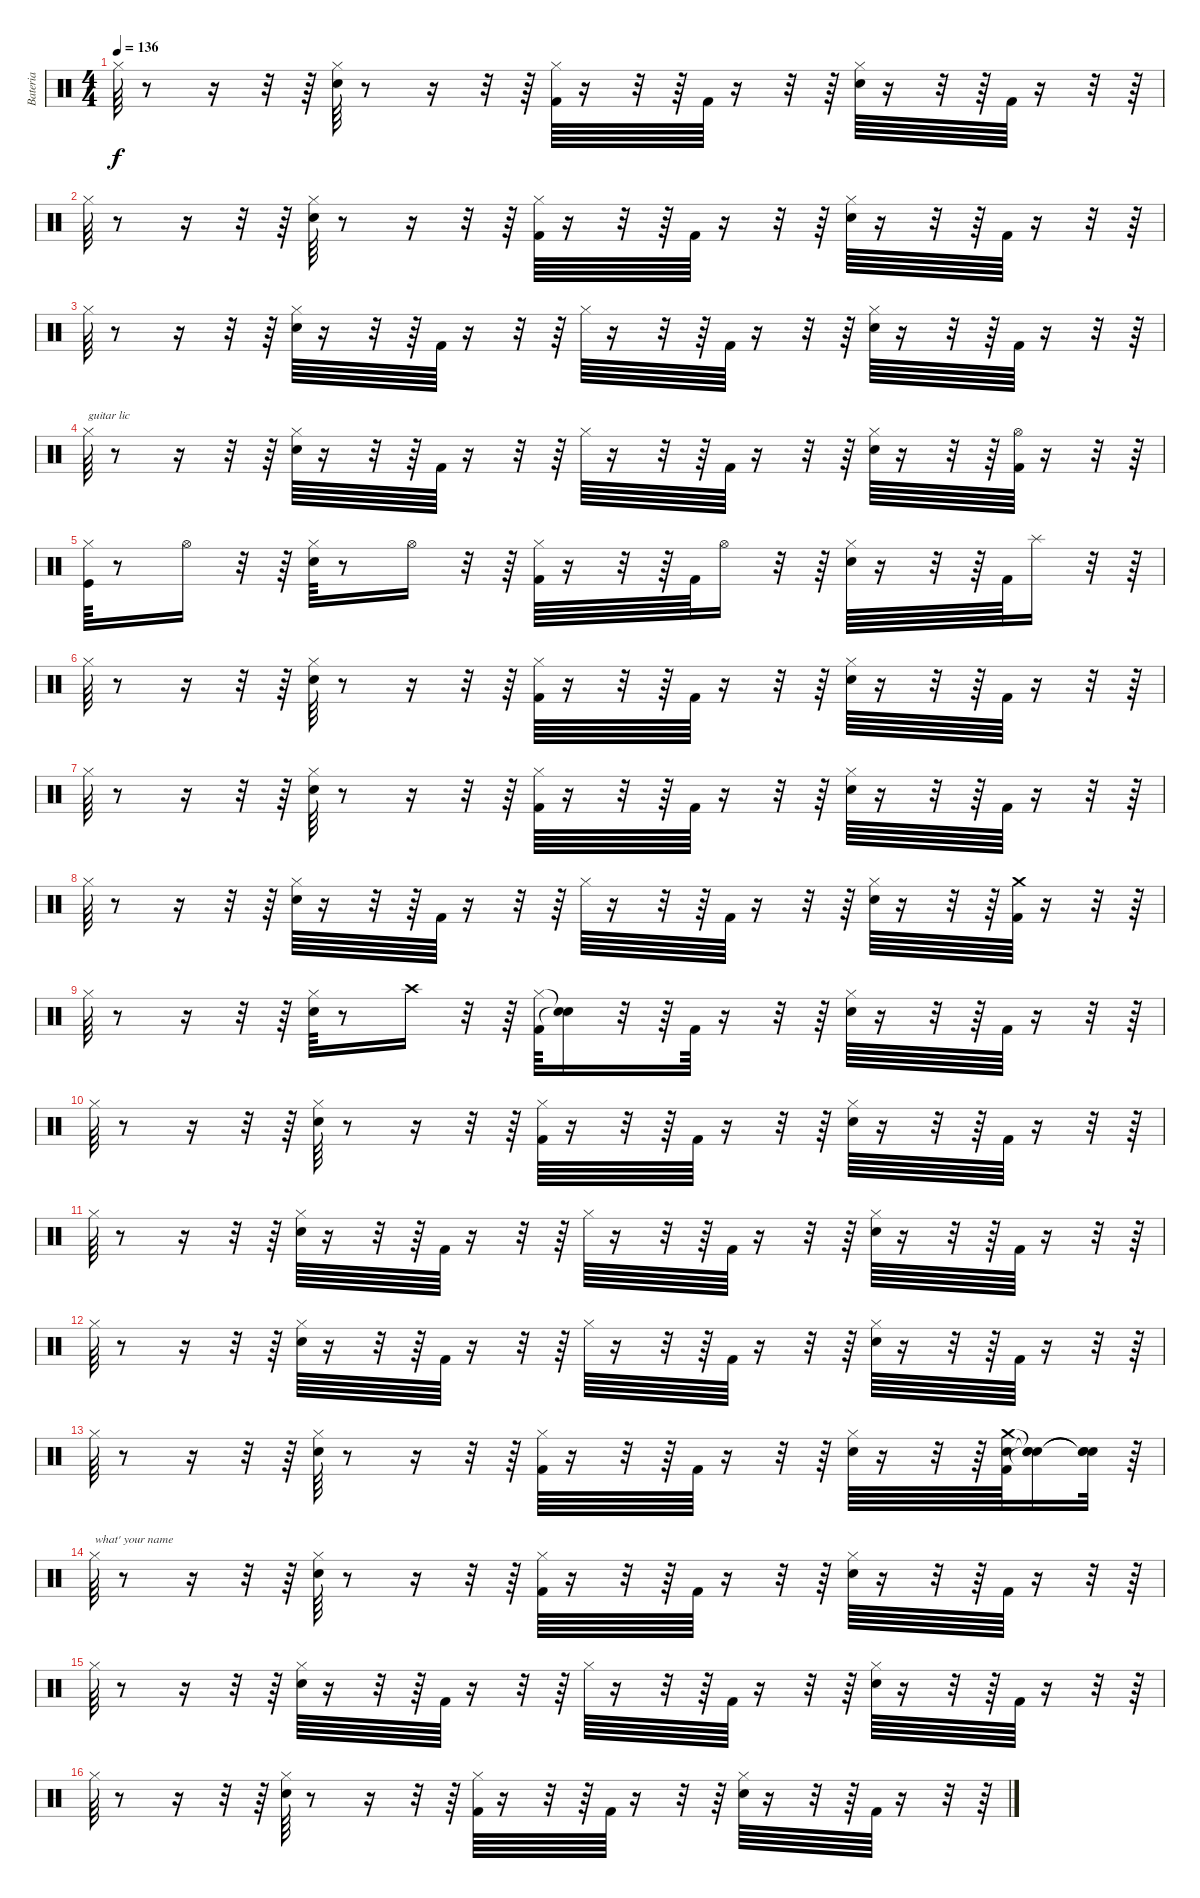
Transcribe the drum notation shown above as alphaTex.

\track ("Bateria" "Bateria") {instrument percussion}
\staff {score}
\articulation defaults
\ts (4 4)
\tempo 136
\clef neutral
\ks c "Hi-Hat (closed)".64{dy f}
r.8 r.16 r.32 r.64 ("Snare (hit) 2" "Hi-Hat (closed)").64 r.8 r.16 r.32 r.64 ("Kick (hit) 2" "Hi-Hat (closed)").64 r.16 r.32 r.64 "Kick (hit) 2".64 r.16 r.32 r.64 ("Snare (hit) 2" "Hi-Hat (closed)").64 r.16 r.32 r.64 "Kick (hit) 2".64 r.16 r.32 r.64 |
"Hi-Hat (closed)".64 r.8 r.16 r.32 r.64 ("Snare (hit) 2" "Hi-Hat (closed)").64 r.8 r.16 r.32 r.64 ("Kick (hit) 2" "Hi-Hat (closed)").64 r.16 r.32 r.64 "Kick (hit) 2".64 r.16 r.32 r.64 ("Snare (hit) 2" "Hi-Hat (closed)").64 r.16 r.32 r.64 "Kick (hit) 2".64 r.16 r.32 r.64 |
"Hi-Hat (closed)".64 r.8 r.16 r.32 r.64 ("Snare (hit) 2" "Hi-Hat (closed)").64 r.16 r.32 r.64 "Kick (hit) 2".64 r.16 r.32 r.64 "Hi-Hat (closed)".64 r.16 r.32 r.64 "Kick (hit) 2".64 r.16 r.32 r.64 ("Snare (hit) 2" "Hi-Hat (closed)").64 r.16 r.32 r.64 "Kick (hit) 2".64 r.16 r.32 r.64 |
"Hi-Hat (closed)".64{txt "guitar lic"} r.8 r.16 r.32 r.64 ("Snare (hit) 2" "Hi-Hat (closed)").64 r.16 r.32 r.64 "Kick (hit) 2".64 r.16 r.32 r.64 "Hi-Hat (closed)".64 r.16 r.32 r.64 "Kick (hit) 2".64 r.16 r.32 r.64 ("Snare (hit) 2" "Hi-Hat (closed)").64 r.16 r.32 r.64 ("Kick (hit) 2" "Hi-Hat (open)").64 r.16 r.32 r.64 |
("Kick (hit)" "Hi-Hat (closed)").64 r.8 "Hi-Hat (open)".16 r.32 r.64 ("Snare (hit) 2" "Hi-Hat (closed)").64 r.8 "Hi-Hat (open)".16 r.32 r.64 ("Kick (hit) 2" "Hi-Hat (closed)").64 r.16 r.32 r.64 "Kick (hit) 2".64 "Hi-Hat (open)".16 r.32 r.64 ("Snare (hit) 2" "Hi-Hat (closed)").64 r.16 r.32 r.64 "Kick (hit) 2".64 "Splash (hit)".16 r.32 r.64 |
"Hi-Hat (closed)".64 r.8 r.16 r.32 r.64 ("Snare (hit) 2" "Hi-Hat (closed)").64 r.8 r.16 r.32 r.64 ("Kick (hit) 2" "Hi-Hat (closed)").64 r.16 r.32 r.64 "Kick (hit) 2".64 r.16 r.32 r.64 ("Snare (hit) 2" "Hi-Hat (closed)").64 r.16 r.32 r.64 "Kick (hit) 2".64 r.16 r.32 r.64 |
"Hi-Hat (closed)".64 r.8 r.16 r.32 r.64 ("Snare (hit) 2" "Hi-Hat (closed)").64 r.8 r.16 r.32 r.64 ("Kick (hit) 2" "Hi-Hat (closed)").64 r.16 r.32 r.64 "Kick (hit) 2".64 r.16 r.32 r.64 ("Snare (hit) 2" "Hi-Hat (closed)").64 r.16 r.32 r.64 "Kick (hit) 2".64 r.16 r.32 r.64 |
"Hi-Hat (closed)".64 r.8 r.16 r.32 r.64 ("Snare (hit) 2" "Hi-Hat (closed)").64 r.16 r.32 r.64 "Kick (hit) 2".64 r.16 r.32 r.64 "Hi-Hat (closed)".64 r.16 r.32 r.64 "Kick (hit) 2".64 r.16 r.32 r.64 ("Snare (hit) 2" "Hi-Hat (closed)").64 r.16 r.32 r.64 ("Kick (hit) 2" "Crash medium (hit)").64 r.16 r.32 r.64 |
"Hi-Hat (closed)".64 r.8 r.16 r.32 r.64 ("Snare (hit) 2" "Hi-Hat (closed)").64 r.8 "Crash high (hit)".16 r.32 r.64 ("Kick (hit) 2" "Hi-Hat (closed)").64 ("Snare (hit)"{t} "Snare (hit)"{t}).16 r.32 r.64 "Kick (hit) 2".64 r.16 r.32 r.64 ("Snare (hit) 2" "Hi-Hat (closed)").64 r.16 r.32 r.64 "Kick (hit) 2".64 r.16 r.32 r.64 |
"Hi-Hat (closed)".64 r.8 r.16 r.32 r.64 ("Snare (hit) 2" "Hi-Hat (closed)").64 r.8 r.16 r.32 r.64 ("Kick (hit) 2" "Hi-Hat (closed)").64 r.16 r.32 r.64 "Kick (hit) 2".64 r.16 r.32 r.64 ("Snare (hit) 2" "Hi-Hat (closed)").64 r.16 r.32 r.64 "Kick (hit) 2".64 r.16 r.32 r.64 |
"Hi-Hat (closed)".64 r.8 r.16 r.32 r.64 ("Snare (hit) 2" "Hi-Hat (closed)").64 r.16 r.32 r.64 "Kick (hit) 2".64 r.16 r.32 r.64 "Hi-Hat (closed)".64 r.16 r.32 r.64 "Kick (hit) 2".64 r.16 r.32 r.64 ("Snare (hit) 2" "Hi-Hat (closed)").64 r.16 r.32 r.64 "Kick (hit) 2".64 r.16 r.32 r.64 |
"Hi-Hat (closed)".64 r.8 r.16 r.32 r.64 ("Snare (hit) 2" "Hi-Hat (closed)").64 r.16 r.32 r.64 "Kick (hit) 2".64 r.16 r.32 r.64 "Hi-Hat (closed)".64 r.16 r.32 r.64 "Kick (hit) 2".64 r.16 r.32 r.64 ("Snare (hit) 2" "Hi-Hat (closed)").64 r.16 r.32 r.64 "Kick (hit) 2".64 r.16 r.32 r.64 |
"Hi-Hat (closed)".64 r.8 r.16 r.32 r.64 ("Snare (hit) 2" "Hi-Hat (closed)").64 r.8 r.16 r.32 r.64 ("Kick (hit) 2" "Hi-Hat (closed)").64 r.16 r.32 r.64 "Kick (hit) 2".64 r.16 r.32 r.64 ("Snare (hit) 2" "Hi-Hat (closed)").64 r.16 r.32 r.64 ("Kick (hit) 2" "Snare (hit) 2" "Crash medium (hit)").64 ("Snare (hit)"{t} "Snare (hit)"{t} "Snare (hit)"{t}).16 ("Snare (hit)"{t} "Snare (hit)"{t} "Snare (hit)"{t}).32 r.64 |
"Hi-Hat (closed)".64{txt "what' your name"} r.8 r.16 r.32 r.64 ("Snare (hit) 2" "Hi-Hat (closed)").64 r.8 r.16 r.32 r.64 ("Kick (hit) 2" "Hi-Hat (closed)").64 r.16 r.32 r.64 "Kick (hit) 2".64 r.16 r.32 r.64 ("Snare (hit) 2" "Hi-Hat (closed)").64 r.16 r.32 r.64 "Kick (hit) 2".64 r.16 r.32 r.64 |
"Hi-Hat (closed)".64 r.8 r.16 r.32 r.64 ("Snare (hit) 2" "Hi-Hat (closed)").64 r.16 r.32 r.64 "Kick (hit) 2".64 r.16 r.32 r.64 "Hi-Hat (closed)".64 r.16 r.32 r.64 "Kick (hit) 2".64 r.16 r.32 r.64 ("Snare (hit) 2" "Hi-Hat (closed)").64 r.16 r.32 r.64 "Kick (hit) 2".64 r.16 r.32 r.64 |
"Hi-Hat (closed)".64 r.8 r.16 r.32 r.64 ("Snare (hit) 2" "Hi-Hat (closed)").64 r.8 r.16 r.32 r.64 ("Kick (hit) 2" "Hi-Hat (closed)").64 r.16 r.32 r.64 "Kick (hit) 2".64 r.16 r.32 r.64 ("Snare (hit) 2" "Hi-Hat (closed)").64 r.16 r.32 r.64 "Kick (hit) 2".64 r.16 r.32 r.64
